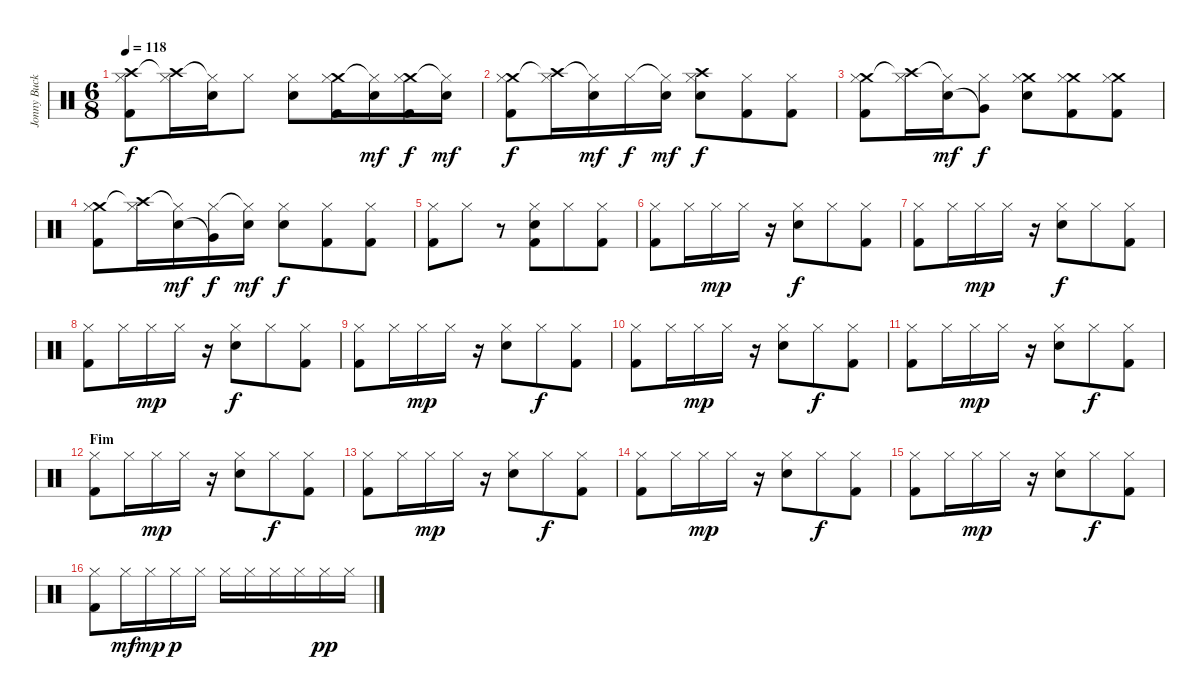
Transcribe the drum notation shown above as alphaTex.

\track ("Jonny Buckland (batera)" "Jonny Buck") {instrument percussion}
\staff {score}
\articulation defaults
\ts (6 8)
\tempo 118
\clef neutral
\ks c
("Crash high (hit)" "Hi-Hat (closed)" "Kick (hit) 2").8{dy f} ("Crash high (hit)"{t} "Hi-Hat (closed)").16 ("Hi-Hat (closed)"{t} "Electric Snare (hit)").16 "Hi-Hat (closed)".8 ("Hi-Hat (closed)" "Electric Snare (hit)").8 ("Crash medium (hit)" "Hi-Hat (closed)" "Kick (hit) 2").16 ("Hi-Hat (closed)"{t} "Snare (hit) 2").16{dy mf} ("Crash medium (hit)" "Hi-Hat (closed)" "Kick (hit) 2").16{dy f} ("Hi-Hat (closed)"{t} "Snare (hit) 2").16{dy mf} |
("Crash medium (hit)" "Hi-Hat (closed)" "Kick (hit) 2").8{dy f} ("Crash high (hit)"{t} "Hi-Hat (closed)").16 ("Hi-Hat (closed)"{t} "Snare (hit) 2").16{dy mf} "Hi-Hat (closed)".16{dy f} ("Hi-Hat (closed)"{t} "Snare (hit) 2").16{dy mf} ("Crash high (hit)" "Hi-Hat (closed)" "Electric Snare (hit)").8{dy f} ("Hi-Hat (closed)" "Kick (hit) 2").8 ("Hi-Hat (closed)" "Kick (hit) 2").8 |
("Crash medium (hit)" "Hi-Hat (closed)" "Kick (hit) 2").8 ("Crash high (hit)"{t} "Hi-Hat (closed)").16 ("Hi-Hat (closed)"{t} "Snare (hit) 2").16{dy mf} ("Hi-Hat (closed)" "Very Low Tom (hit)"{t}).8{dy f} ("Crash medium (hit)" "Hi-Hat (closed)" "Electric Snare (hit)").8 ("Crash medium (hit)" "Hi-Hat (closed)" "Kick (hit) 2").8 ("Crash medium (hit)" "Hi-Hat (closed)" "Kick (hit) 2").8 |
("Crash medium (hit)" "Hi-Hat (closed)" "Kick (hit) 2").8 ("Crash high (hit)"{t} "Hi-Hat (closed)").16 ("Hi-Hat (closed)"{t} "Snare (hit) 2").16{dy mf} ("Hi-Hat (closed)" "Very Low Tom (hit)"{t}).16{dy f} ("Hi-Hat (closed)"{t} "Snare (hit) 2").16{dy mf} ("Hi-Hat (closed)" "Electric Snare (hit)").8{dy f} ("Hi-Hat (closed)" "Kick (hit) 2").8 ("Hi-Hat (closed)" "Kick (hit) 2").8 |
("Hi-Hat (closed)" "Kick (hit) 2").8 "Hi-Hat (closed)".8 r.8 ("Hi-Hat (closed)" "Electric Snare (hit)" "Kick (hit) 2").8 "Hi-Hat (closed)".8 ("Hi-Hat (closed)" "Kick (hit) 2").8 |
("Hi-Hat (closed)" "Kick (hit) 2").8 "Hi-Hat (closed)".16 "Hi-Hat (closed)".16{dy mp} "Hi-Hat (closed)".16 r.16 ("Hi-Hat (closed)" "Electric Snare (hit)").8{dy f} "Hi-Hat (closed)".8 ("Hi-Hat (closed)" "Kick (hit) 2").8 |
("Hi-Hat (closed)" "Kick (hit) 2").8 "Hi-Hat (closed)".16 "Hi-Hat (closed)".16{dy mp} "Hi-Hat (closed)".16 r.16 ("Hi-Hat (closed)" "Electric Snare (hit)").8{dy f} "Hi-Hat (closed)".8 ("Hi-Hat (closed)" "Kick (hit) 2").8 |
("Hi-Hat (closed)" "Kick (hit) 2").8 "Hi-Hat (closed)".16 "Hi-Hat (closed)".16{dy mp} "Hi-Hat (closed)".16 r.16 ("Hi-Hat (closed)" "Electric Snare (hit)").8{dy f} "Hi-Hat (closed)".8 ("Hi-Hat (closed)" "Kick (hit) 2").8 |
("Hi-Hat (closed)" "Kick (hit) 2").8 "Hi-Hat (closed)".16 "Hi-Hat (closed)".16{dy mp} "Hi-Hat (closed)".16 r.16 ("Hi-Hat (closed)" "Snare (hit) 2").8 "Hi-Hat (closed)".8{dy f} ("Hi-Hat (closed)" "Kick (hit) 2").8 |
("Hi-Hat (closed)" "Kick (hit) 2").8 "Hi-Hat (closed)".16 "Hi-Hat (closed)".16{dy mp} "Hi-Hat (closed)".16 r.16 ("Hi-Hat (closed)" "Snare (hit) 2").8 "Hi-Hat (closed)".8{dy f} ("Hi-Hat (closed)" "Kick (hit) 2").8 |
("Hi-Hat (closed)" "Kick (hit) 2").8 "Hi-Hat (closed)".16 "Hi-Hat (closed)".16{dy mp} "Hi-Hat (closed)".16 r.16 ("Hi-Hat (closed)" "Snare (hit) 2").8 "Hi-Hat (closed)".8{dy f} ("Hi-Hat (closed)" "Kick (hit) 2").8 |
\section ("" "Fim")
("Hi-Hat (closed)" "Kick (hit) 2").8 "Hi-Hat (closed)".16 "Hi-Hat (closed)".16{dy mp} "Hi-Hat (closed)".16 r.16 ("Hi-Hat (closed)" "Snare (hit) 2").8 "Hi-Hat (closed)".8{dy f} ("Hi-Hat (closed)" "Kick (hit) 2").8 |
("Hi-Hat (closed)" "Kick (hit) 2").8 "Hi-Hat (closed)".16 "Hi-Hat (closed)".16{dy mp} "Hi-Hat (closed)".16 r.16 ("Hi-Hat (closed)" "Snare (hit) 2").8 "Hi-Hat (closed)".8{dy f} ("Hi-Hat (closed)" "Kick (hit) 2").8 |
("Hi-Hat (closed)" "Kick (hit) 2").8 "Hi-Hat (closed)".16 "Hi-Hat (closed)".16{dy mp} "Hi-Hat (closed)".16 r.16 ("Hi-Hat (closed)" "Snare (hit) 2").8 "Hi-Hat (closed)".8{dy f} ("Hi-Hat (closed)" "Kick (hit) 2").8 |
("Hi-Hat (closed)" "Kick (hit) 2").8 "Hi-Hat (closed)".16 "Hi-Hat (closed)".16{dy mp} "Hi-Hat (closed)".16 r.16 ("Hi-Hat (closed)" "Snare (hit) 2").8 "Hi-Hat (closed)".8{dy f} ("Hi-Hat (closed)" "Kick (hit) 2").8 |
("Hi-Hat (closed)" "Kick (hit) 2").8 "Hi-Hat (closed)".16{dy mf} "Hi-Hat (closed)".16{dy mp} "Hi-Hat (closed)".16{dy p} "Hi-Hat (closed)".16 "Hi-Hat (closed)".16 "Hi-Hat (closed)".16 "Hi-Hat (closed)".16 "Hi-Hat (closed)".16 "Hi-Hat (closed)".16{dy pp} "Hi-Hat (closed)".16
